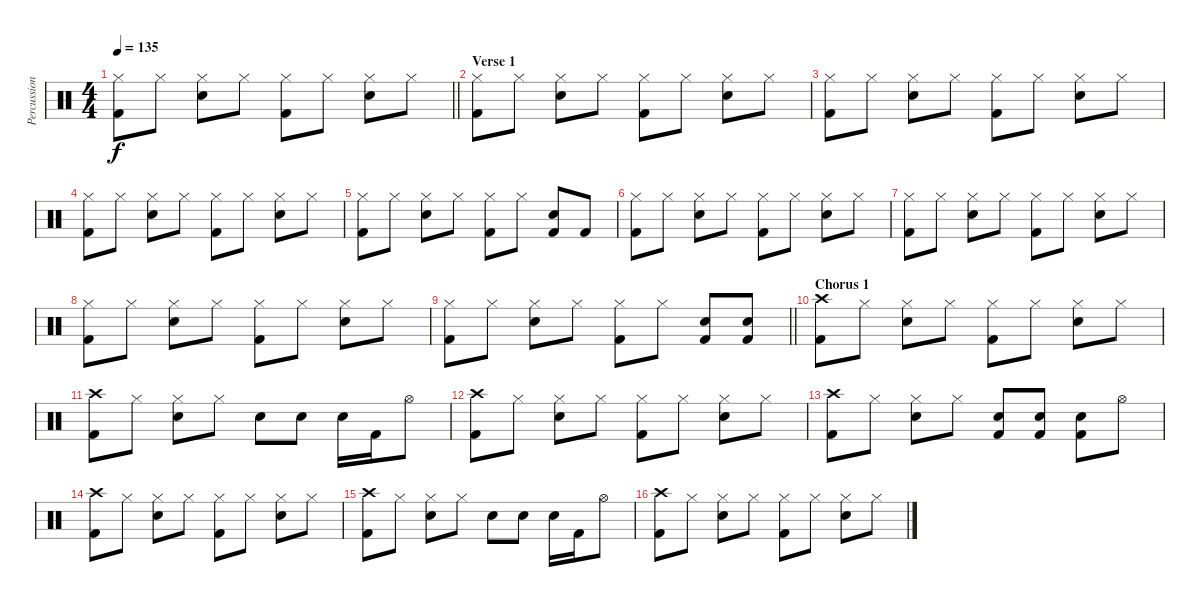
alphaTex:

\track ("Percussion" "Percussion") {instrument percussion}
\staff {score}
\articulation defaults
\ts (4 4)
\tempo 135
\clef neutral
\barLineRight lightlight
\ks c
("Hi-Hat (closed)" "Kick (hit) 2").8{dy f} "Hi-Hat (closed)".8 ("Hi-Hat (closed)" "Electric Snare (hit)").8 "Hi-Hat (closed)".8 ("Hi-Hat (closed)" "Kick (hit) 2").8 "Hi-Hat (closed)".8 ("Hi-Hat (closed)" "Electric Snare (hit)").8 "Hi-Hat (closed)".8 |
\section ("" "Verse 1")
("Hi-Hat (closed)" "Kick (hit) 2").8 "Hi-Hat (closed)".8 ("Hi-Hat (closed)" "Electric Snare (hit)").8 "Hi-Hat (closed)".8 ("Hi-Hat (closed)" "Kick (hit) 2").8 "Hi-Hat (closed)".8 ("Hi-Hat (closed)" "Electric Snare (hit)").8 "Hi-Hat (closed)".8 |
("Hi-Hat (closed)" "Kick (hit) 2").8 "Hi-Hat (closed)".8 ("Hi-Hat (closed)" "Electric Snare (hit)").8 "Hi-Hat (closed)".8 ("Hi-Hat (closed)" "Kick (hit) 2").8 "Hi-Hat (closed)".8 ("Hi-Hat (closed)" "Electric Snare (hit)").8 "Hi-Hat (closed)".8 |
("Hi-Hat (closed)" "Kick (hit) 2").8 "Hi-Hat (closed)".8 ("Hi-Hat (closed)" "Electric Snare (hit)").8 "Hi-Hat (closed)".8 ("Hi-Hat (closed)" "Kick (hit) 2").8 "Hi-Hat (closed)".8 ("Hi-Hat (closed)" "Electric Snare (hit)").8 "Hi-Hat (closed)".8 |
("Hi-Hat (closed)" "Kick (hit) 2").8 "Hi-Hat (closed)".8 ("Hi-Hat (closed)" "Electric Snare (hit)").8 "Hi-Hat (closed)".8 ("Hi-Hat (closed)" "Kick (hit) 2").8 "Hi-Hat (closed)".8 ("Electric Snare (hit)" "Kick (hit) 2").8 "Kick (hit) 2".8 |
("Hi-Hat (closed)" "Kick (hit) 2").8 "Hi-Hat (closed)".8 ("Hi-Hat (closed)" "Electric Snare (hit)").8 "Hi-Hat (closed)".8 ("Hi-Hat (closed)" "Kick (hit) 2").8 "Hi-Hat (closed)".8 ("Hi-Hat (closed)" "Electric Snare (hit)").8 "Hi-Hat (closed)".8 |
("Hi-Hat (closed)" "Kick (hit) 2").8 "Hi-Hat (closed)".8 ("Hi-Hat (closed)" "Electric Snare (hit)").8 "Hi-Hat (closed)".8 ("Hi-Hat (closed)" "Kick (hit) 2").8 "Hi-Hat (closed)".8 ("Hi-Hat (closed)" "Electric Snare (hit)").8 "Hi-Hat (closed)".8 |
("Hi-Hat (closed)" "Kick (hit) 2").8 "Hi-Hat (closed)".8 ("Hi-Hat (closed)" "Electric Snare (hit)").8 "Hi-Hat (closed)".8 ("Hi-Hat (closed)" "Kick (hit) 2").8 "Hi-Hat (closed)".8 ("Hi-Hat (closed)" "Electric Snare (hit)").8 "Hi-Hat (closed)".8 |
\barLineRight lightlight
("Hi-Hat (closed)" "Kick (hit) 2").8 "Hi-Hat (closed)".8 ("Hi-Hat (closed)" "Electric Snare (hit)").8 "Hi-Hat (closed)".8 ("Hi-Hat (closed)" "Kick (hit) 2").8 "Hi-Hat (closed)".8 ("Electric Snare (hit)" "Kick (hit) 2").8 ("Electric Snare (hit)" "Kick (hit) 2").8 |
\section ("" "Chorus 1")
("Crash high (hit)" "Kick (hit) 2").8 "Hi-Hat (closed)".8 ("Hi-Hat (closed)" "Electric Snare (hit)").8 "Hi-Hat (closed)".8 ("Hi-Hat (closed)" "Kick (hit) 2").8 "Hi-Hat (closed)".8 ("Hi-Hat (closed)" "Electric Snare (hit)").8 "Hi-Hat (closed)".8 |
("Crash high (hit)" "Kick (hit) 2").8 "Hi-Hat (closed)".8 ("Hi-Hat (closed)" "Electric Snare (hit)").8 "Hi-Hat (closed)".8 "Electric Snare (hit)".8 "Electric Snare (hit)".8 "Electric Snare (hit)".16 "Kick (hit) 2".16 "Hi-Hat (open)".8 |
("Crash high (hit)" "Kick (hit) 2").8 "Hi-Hat (closed)".8 ("Hi-Hat (closed)" "Electric Snare (hit)").8 "Hi-Hat (closed)".8 ("Hi-Hat (closed)" "Kick (hit) 2").8 "Hi-Hat (closed)".8 ("Hi-Hat (closed)" "Electric Snare (hit)").8 "Hi-Hat (closed)".8 |
("Crash high (hit)" "Kick (hit) 2").8 "Hi-Hat (closed)".8 ("Hi-Hat (closed)" "Electric Snare (hit)").8 "Hi-Hat (closed)".8 ("Electric Snare (hit)" "Kick (hit) 2").8 ("Electric Snare (hit)" "Kick (hit) 2").8 ("Electric Snare (hit)" "Kick (hit) 2").8 "Hi-Hat (open)".8 |
("Crash high (hit)" "Kick (hit) 2").8 "Hi-Hat (closed)".8 ("Hi-Hat (closed)" "Electric Snare (hit)").8 "Hi-Hat (closed)".8 ("Hi-Hat (closed)" "Kick (hit) 2").8 "Hi-Hat (closed)".8 ("Hi-Hat (closed)" "Electric Snare (hit)").8 "Hi-Hat (closed)".8 |
("Crash high (hit)" "Kick (hit) 2").8 "Hi-Hat (closed)".8 ("Hi-Hat (closed)" "Electric Snare (hit)").8 "Hi-Hat (closed)".8 "Electric Snare (hit)".8 "Electric Snare (hit)".8 "Electric Snare (hit)".16 "Kick (hit) 2".16 "Hi-Hat (open)".8 |
("Crash high (hit)" "Kick (hit) 2").8 "Hi-Hat (closed)".8 ("Hi-Hat (closed)" "Electric Snare (hit)").8 "Hi-Hat (closed)".8 ("Hi-Hat (closed)" "Kick (hit) 2").8 "Hi-Hat (closed)".8 ("Hi-Hat (closed)" "Electric Snare (hit)").8 "Hi-Hat (closed)".8
